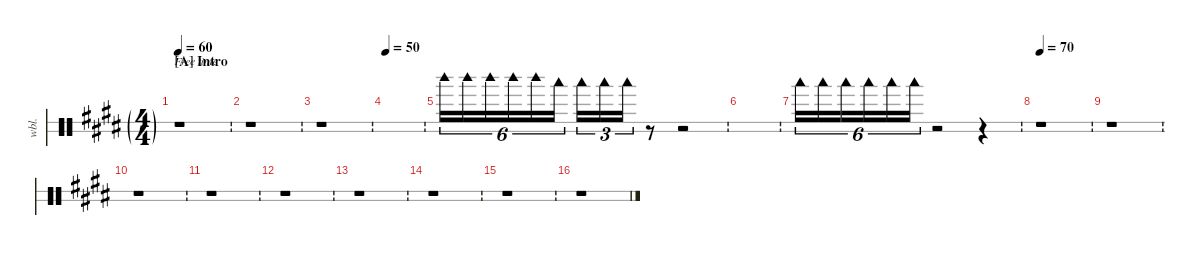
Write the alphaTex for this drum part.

\defaultSystemsLayout 4
\hideDynamics
\bracketExtendMode nobrackets
\track ("Woodblock" "wbl.") {instrument percussion}
\staff {score 2}
\articulation defaults
\ts (4 4)
\ft
\section ("A" "Intro")
\tempo 60
\clef neutral
\ks e
r.1{dy mf} |
\ft
r.1 |
\ft
r.1 |
\ft
\tempo 50
|
\ft "Woodblock high (hit)"{acc forcenatural}.16{tu (6 4)} "Woodblock high (hit)"{acc forcenatural}.16{tu (6 4)} "Woodblock high (hit)"{acc forcenatural}.16{tu (6 4)} "Woodblock high (hit)"{acc forcenatural}.16{tu (6 4)} "Woodblock high (hit)"{acc forcenatural}.16{tu (6 4)} "Woodblock low (hit)"{acc forcenatural}.16{tu (6 4)} "Woodblock low (hit)"{acc forcenatural}.16{tu (3 2)} "Woodblock low (hit)"{acc forcenatural}.16{tu (3 2)} "Woodblock low (hit)"{acc forcenatural}.16{tu (3 2)}
r.8 r.2 |
\ft
|
\ft "Woodblock low (hit)"{acc forcenatural}.16{tu (6 4)} "Woodblock low (hit)"{acc forcenatural}.16{tu (6 4)} "Woodblock low (hit)"{acc forcenatural}.16{tu (6 4)} "Woodblock low (hit)"{acc forcenatural}.16{tu (6 4)} "Woodblock low (hit)"{acc forcenatural}.16{tu (6 4)} "Woodblock low (hit)"{acc forcenatural}.16{tu (6 4)}
r.2 r.4 |
\ft
\tempo 70
r.1 |
\ft
r.1 |
\ft
r.1 |
\ft
r.1 |
\ft
r.1 |
\ft
r.1 |
\ft
r.1 |
\ft
r.1 |
\ft
r.1
